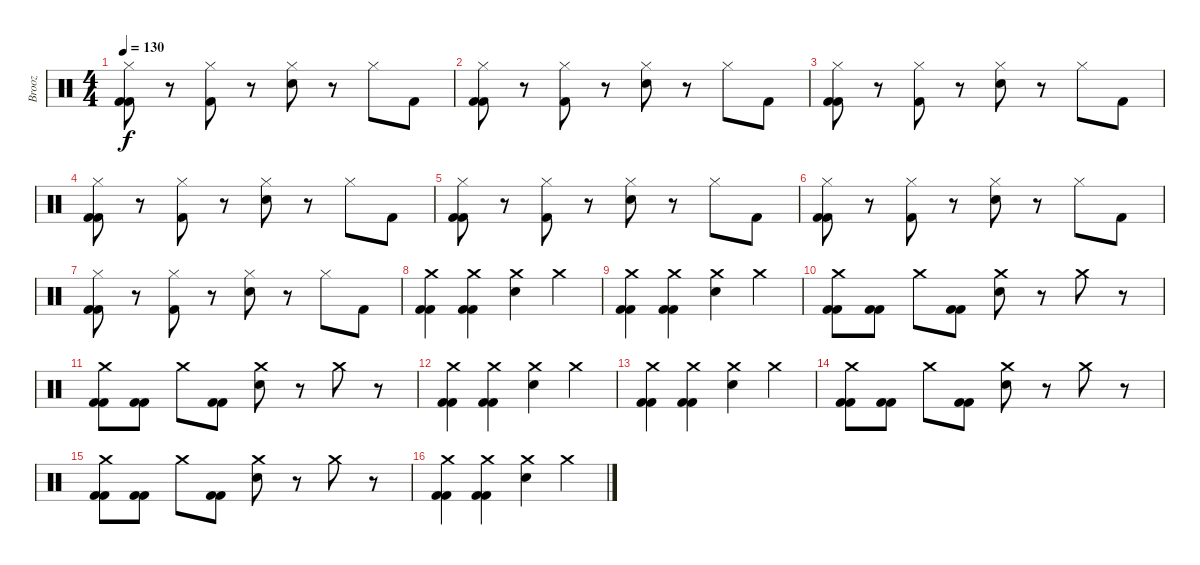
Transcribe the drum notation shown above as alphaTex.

\track ("Brooz" "Brooz") {instrument percussion}
\staff {score}
\articulation defaults
\ts (4 4)
\tempo 130
\clef neutral
\ks c
("Kick (hit) 2" "Hi-Hat (closed)" "Kick (hit) 2").8{dy f} r.8 ("Hi-Hat (closed)" "Kick (hit) 2").8 r.8 ("Hi-Hat (closed)" "Electric Snare (hit)").8 r.8 "Hi-Hat (closed)".8 "Kick (hit) 2".8 |
("Kick (hit) 2" "Hi-Hat (closed)" "Kick (hit) 2").8 r.8 ("Hi-Hat (closed)" "Kick (hit) 2").8 r.8 ("Hi-Hat (closed)" "Electric Snare (hit)").8 r.8 "Hi-Hat (closed)".8 "Kick (hit) 2".8 |
("Kick (hit) 2" "Hi-Hat (closed)" "Kick (hit) 2").8 r.8 ("Hi-Hat (closed)" "Kick (hit) 2").8 r.8 ("Hi-Hat (closed)" "Electric Snare (hit)").8 r.8 "Hi-Hat (closed)".8 "Kick (hit) 2".8 |
("Kick (hit) 2" "Hi-Hat (closed)" "Kick (hit) 2").8 r.8 ("Hi-Hat (closed)" "Kick (hit) 2").8 r.8 ("Hi-Hat (closed)" "Electric Snare (hit)").8 r.8 "Hi-Hat (closed)".8 "Kick (hit) 2".8 |
("Kick (hit) 2" "Hi-Hat (closed)" "Kick (hit) 2").8 r.8 ("Hi-Hat (closed)" "Kick (hit) 2").8 r.8 ("Hi-Hat (closed)" "Electric Snare (hit)").8 r.8 "Hi-Hat (closed)".8 "Kick (hit) 2".8 |
("Kick (hit) 2" "Hi-Hat (closed)" "Kick (hit) 2").8 r.8 ("Hi-Hat (closed)" "Kick (hit) 2").8 r.8 ("Hi-Hat (closed)" "Electric Snare (hit)").8 r.8 "Hi-Hat (closed)".8 "Kick (hit) 2".8 |
("Kick (hit) 2" "Hi-Hat (closed)" "Kick (hit) 2").8 r.8 ("Hi-Hat (closed)" "Kick (hit) 2").8 r.8 ("Hi-Hat (closed)" "Electric Snare (hit)").8 r.8 "Hi-Hat (closed)".8 "Kick (hit) 2".8 |
("Kick (hit) 2" "Crash medium (hit)" "Kick (hit) 2").4 ("Kick (hit) 2" "Crash medium (hit)" "Kick (hit) 2").4 ("Crash medium (hit)" "Electric Snare (hit)").4 "Crash medium (hit)".4 |
("Kick (hit) 2" "Crash medium (hit)" "Kick (hit) 2").4 ("Kick (hit) 2" "Crash medium (hit)" "Kick (hit) 2").4 ("Crash medium (hit)" "Electric Snare (hit)").4 "Crash medium (hit)".4 |
("Kick (hit) 2" "Crash medium (hit)" "Kick (hit) 2").8 ("Kick (hit) 2" "Kick (hit) 2").8 "Crash medium (hit)".8 ("Kick (hit) 2" "Kick (hit) 2").8 ("Crash medium (hit)" "Electric Snare (hit)").8 r.8 "Crash medium (hit)".8 r.8 |
("Kick (hit) 2" "Crash medium (hit)" "Kick (hit) 2").8 ("Kick (hit) 2" "Kick (hit) 2").8 "Crash medium (hit)".8 ("Kick (hit) 2" "Kick (hit) 2").8 ("Crash medium (hit)" "Electric Snare (hit)").8 r.8 "Crash medium (hit)".8 r.8 |
("Kick (hit) 2" "Crash medium (hit)" "Kick (hit) 2").4 ("Kick (hit) 2" "Crash medium (hit)" "Kick (hit) 2").4 ("Crash medium (hit)" "Electric Snare (hit)").4 "Crash medium (hit)".4 |
("Kick (hit) 2" "Crash medium (hit)" "Kick (hit) 2").4 ("Kick (hit) 2" "Crash medium (hit)" "Kick (hit) 2").4 ("Crash medium (hit)" "Electric Snare (hit)").4 "Crash medium (hit)".4 |
("Kick (hit) 2" "Crash medium (hit)" "Kick (hit) 2").8 ("Kick (hit) 2" "Kick (hit) 2").8 "Crash medium (hit)".8 ("Kick (hit) 2" "Kick (hit) 2").8 ("Crash medium (hit)" "Electric Snare (hit)").8 r.8 "Crash medium (hit)".8 r.8 |
("Kick (hit) 2" "Crash medium (hit)" "Kick (hit) 2").8 ("Kick (hit) 2" "Kick (hit) 2").8 "Crash medium (hit)".8 ("Kick (hit) 2" "Kick (hit) 2").8 ("Crash medium (hit)" "Electric Snare (hit)").8 r.8 "Crash medium (hit)".8 r.8 |
("Kick (hit) 2" "Crash medium (hit)" "Kick (hit) 2").4 ("Kick (hit) 2" "Crash medium (hit)" "Kick (hit) 2").4 ("Crash medium (hit)" "Electric Snare (hit)").4 "Crash medium (hit)".4
